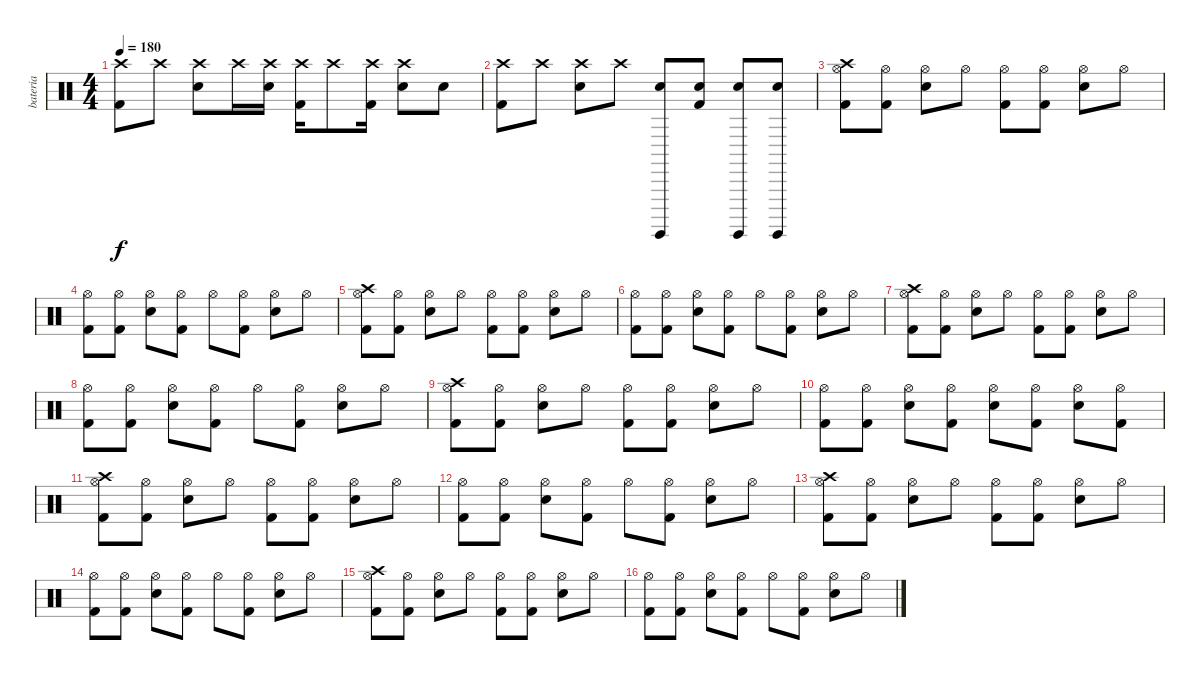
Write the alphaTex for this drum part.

\track ("bateria" "bateria") {instrument percussion}
\staff {score}
\articulation defaults
\ts (4 4)
\tempo 180
\clef neutral
\ks c
("Crash high (hit)" "Kick (hit) 2").8{dy f} "Crash high (hit)"{x}.8 ("Crash high (hit)" "Electric Snare (hit)").8 "Crash high (hit)"{x}.16 ("Crash high (hit)"{x} "Electric Snare (hit)").16 ("Crash high (hit)" "Kick (hit) 2").16 "Crash high (hit)"{x}.8 ("Crash high (hit)"{x} "Kick (hit) 2").16 ("Crash high (hit)" "Electric Snare (hit)").8 "Snare (hit)"{x}.8 |
("Crash high (hit)" "Kick (hit) 2").8 "Crash high (hit)"{x}.8 ("Crash high (hit)" "Electric Snare (hit)").8 "Crash high (hit)"{x}.8 ("Surdo (hit)" "Electric Snare (hit)").8 ("Kick (hit) 2" "Electric Snare (hit)").8 ("Surdo (hit)" "Electric Snare (hit)").8 ("Surdo (hit)" "Electric Snare (hit)").8 |
("Hi-Hat (open)" "Kick (hit) 2" "Crash high (hit)").8 ("Hi-Hat (open)"{x} "Kick (hit) 2").8 ("Hi-Hat (open)" "Electric Snare (hit)").8 "Hi-Hat (open)"{x}.8 ("Hi-Hat (open)" "Kick (hit) 2").8 ("Hi-Hat (open)"{x} "Kick (hit) 2").8 ("Hi-Hat (open)" "Electric Snare (hit)").8 "Hi-Hat (open)"{x}.8 |
("Hi-Hat (open)" "Kick (hit) 2").8 ("Hi-Hat (open)"{x} "Kick (hit) 2").8 ("Hi-Hat (open)" "Electric Snare (hit)").8 ("Hi-Hat (open)"{x} "Kick (hit) 2").8 "Hi-Hat (open)".8 ("Hi-Hat (open)"{x} "Kick (hit) 2").8 ("Hi-Hat (open)" "Electric Snare (hit)").8 "Hi-Hat (open)"{x}.8 |
("Hi-Hat (open)" "Kick (hit) 2" "Crash high (hit)").8 ("Hi-Hat (open)"{x} "Kick (hit) 2").8 ("Hi-Hat (open)" "Electric Snare (hit)").8 "Hi-Hat (open)"{x}.8 ("Hi-Hat (open)" "Kick (hit) 2").8 ("Hi-Hat (open)"{x} "Kick (hit) 2").8 ("Hi-Hat (open)" "Electric Snare (hit)").8 "Hi-Hat (open)"{x}.8 |
("Hi-Hat (open)" "Kick (hit) 2").8 ("Hi-Hat (open)"{x} "Kick (hit) 2").8 ("Hi-Hat (open)" "Electric Snare (hit)").8 ("Hi-Hat (open)"{x} "Kick (hit) 2").8 "Hi-Hat (open)".8 ("Hi-Hat (open)"{x} "Kick (hit) 2").8 ("Hi-Hat (open)" "Electric Snare (hit)").8 "Hi-Hat (open)"{x}.8 |
("Hi-Hat (open)" "Kick (hit) 2" "Crash high (hit)").8 ("Hi-Hat (open)"{x} "Kick (hit) 2").8 ("Hi-Hat (open)" "Electric Snare (hit)").8 "Hi-Hat (open)"{x}.8 ("Hi-Hat (open)" "Kick (hit) 2").8 ("Hi-Hat (open)"{x} "Kick (hit) 2").8 ("Hi-Hat (open)" "Electric Snare (hit)").8 "Hi-Hat (open)"{x}.8 |
("Hi-Hat (open)" "Kick (hit) 2").8 ("Hi-Hat (open)"{x} "Kick (hit) 2").8 ("Hi-Hat (open)" "Electric Snare (hit)").8 ("Hi-Hat (open)"{x} "Kick (hit) 2").8 "Hi-Hat (open)".8 ("Hi-Hat (open)"{x} "Kick (hit) 2").8 ("Hi-Hat (open)" "Electric Snare (hit)").8 "Hi-Hat (open)"{x}.8 |
("Hi-Hat (open)" "Kick (hit) 2" "Crash high (hit)").8 ("Hi-Hat (open)"{x} "Kick (hit) 2").8 ("Hi-Hat (open)" "Electric Snare (hit)").8 "Hi-Hat (open)"{x}.8 ("Hi-Hat (open)" "Kick (hit) 2").8 ("Hi-Hat (open)"{x} "Kick (hit) 2").8 ("Hi-Hat (open)" "Electric Snare (hit)").8 "Hi-Hat (open)"{x}.8 |
("Hi-Hat (open)" "Kick (hit) 2").8 ("Hi-Hat (open)"{x} "Kick (hit) 2").8 ("Hi-Hat (open)" "Electric Snare (hit)").8 ("Hi-Hat (open)"{x} "Kick (hit) 2").8 ("Hi-Hat (open)" "Electric Snare (hit)").8 ("Hi-Hat (open)"{x} "Kick (hit) 2").8 ("Hi-Hat (open)" "Electric Snare (hit)").8 ("Hi-Hat (open)"{x} "Kick (hit) 2").8 |
("Hi-Hat (open)" "Kick (hit) 2" "Crash high (hit)").8 ("Hi-Hat (open)"{x} "Kick (hit) 2").8 ("Hi-Hat (open)" "Electric Snare (hit)").8 "Hi-Hat (open)"{x}.8 ("Hi-Hat (open)" "Kick (hit) 2").8 ("Hi-Hat (open)"{x} "Kick (hit) 2").8 ("Hi-Hat (open)" "Electric Snare (hit)").8 "Hi-Hat (open)"{x}.8 |
("Hi-Hat (open)" "Kick (hit) 2").8 ("Hi-Hat (open)"{x} "Kick (hit) 2").8 ("Hi-Hat (open)" "Electric Snare (hit)").8 ("Hi-Hat (open)"{x} "Kick (hit) 2").8 "Hi-Hat (open)".8 ("Hi-Hat (open)"{x} "Kick (hit) 2").8 ("Hi-Hat (open)" "Electric Snare (hit)").8 "Hi-Hat (open)"{x}.8 |
("Hi-Hat (open)" "Kick (hit) 2" "Crash high (hit)").8 ("Hi-Hat (open)"{x} "Kick (hit) 2").8 ("Hi-Hat (open)" "Electric Snare (hit)").8 "Hi-Hat (open)"{x}.8 ("Hi-Hat (open)" "Kick (hit) 2").8 ("Hi-Hat (open)"{x} "Kick (hit) 2").8 ("Hi-Hat (open)" "Electric Snare (hit)").8 "Hi-Hat (open)"{x}.8 |
("Hi-Hat (open)" "Kick (hit) 2").8 ("Hi-Hat (open)"{x} "Kick (hit) 2").8 ("Hi-Hat (open)" "Electric Snare (hit)").8 ("Hi-Hat (open)"{x} "Kick (hit) 2").8 "Hi-Hat (open)".8 ("Hi-Hat (open)"{x} "Kick (hit) 2").8 ("Hi-Hat (open)" "Electric Snare (hit)").8 "Hi-Hat (open)"{x}.8 |
("Hi-Hat (open)" "Kick (hit) 2" "Crash high (hit)").8 ("Hi-Hat (open)"{x} "Kick (hit) 2").8 ("Hi-Hat (open)" "Electric Snare (hit)").8 "Hi-Hat (open)"{x}.8 ("Hi-Hat (open)" "Kick (hit) 2").8 ("Hi-Hat (open)"{x} "Kick (hit) 2").8 ("Hi-Hat (open)" "Electric Snare (hit)").8 "Hi-Hat (open)"{x}.8 |
("Hi-Hat (open)" "Kick (hit) 2").8 ("Hi-Hat (open)"{x} "Kick (hit) 2").8 ("Hi-Hat (open)" "Electric Snare (hit)").8 ("Hi-Hat (open)"{x} "Kick (hit) 2").8 "Hi-Hat (open)".8 ("Hi-Hat (open)"{x} "Kick (hit) 2").8 ("Hi-Hat (open)" "Electric Snare (hit)").8 "Hi-Hat (open)"{x}.8
